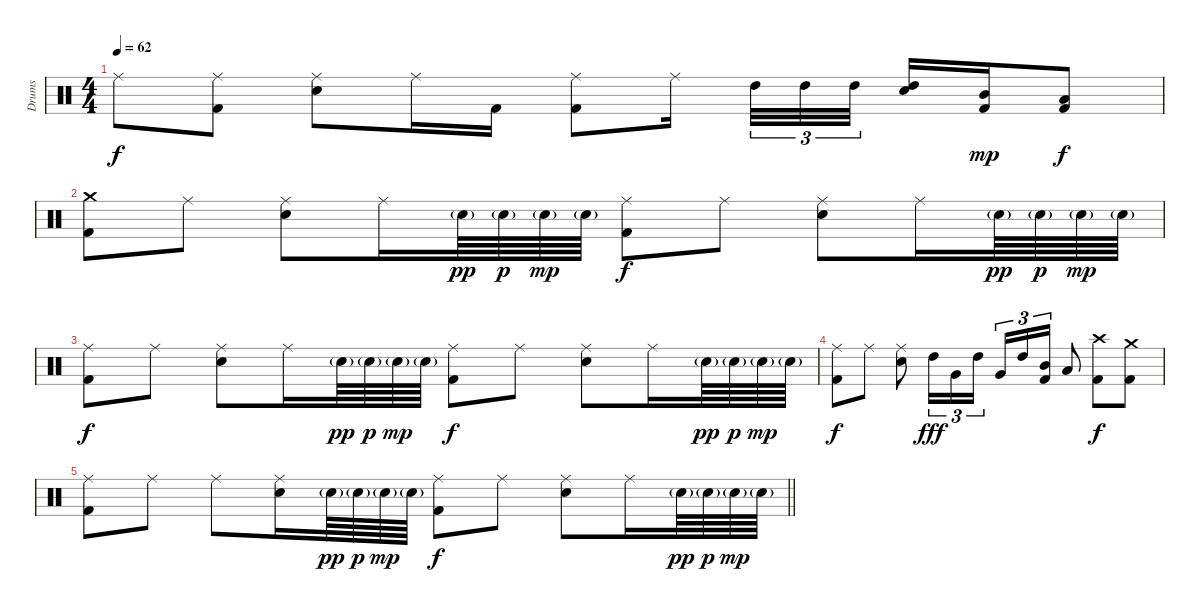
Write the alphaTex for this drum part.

\track ("Drums" "Drums") {instrument percussion}
\staff {score}
\articulation defaults
\ts (4 4)
\tempo 62
\clef neutral
\ks c "Ride (middle)".8{dy f}
("Ride (middle)" "Kick (hit) 2").8 ("Ride (middle)" "Electric Snare (hit)").8 "Ride (middle)".16 "Kick (hit) 2".16 ("Ride (middle)" "Kick (hit) 2").8 "Ride (middle)".16{beam splitsecondary} "High Tom (hit)".32{tu (3 2)} "High Tom (hit)".32{tu (3 2)} "High Tom (hit)".32{tu (3 2)} ("High Tom (hit)" "Electric Snare (hit)").16 ("Mid Tom (hit)" "Kick (hit) 2").16{dy mp} ("Low Tom (hit)" "Kick (hit) 2").8{dy f} |
("Crash medium (hit)" "Kick (hit) 2").8 "Ride (middle)".8 ("Ride (middle)" "Electric Snare (hit)").8 "Ride (middle)".16 "Electric Snare (hit)"{g}.64{dy pp} "Electric Snare (hit)"{g}.64{dy p} "Electric Snare (hit)"{g}.64{dy mp} "Electric Snare (hit)"{g}.64 ("Ride (middle)" "Kick (hit) 2").8{dy f} "Ride (middle)".8 ("Ride (middle)" "Electric Snare (hit)").8 "Ride (middle)".16 "Electric Snare (hit)"{g}.64{dy pp} "Electric Snare (hit)"{g}.64{dy p} "Electric Snare (hit)"{g}.64{dy mp} "Electric Snare (hit)"{g}.64 |
("Ride (middle)" "Kick (hit) 2").8{dy f} "Ride (middle)".8 ("Ride (middle)" "Electric Snare (hit)").8 "Ride (middle)".16 "Electric Snare (hit)"{g}.64{dy pp} "Electric Snare (hit)"{g}.64{dy p} "Electric Snare (hit)"{g}.64{dy mp} "Electric Snare (hit)"{g}.64 ("Ride (middle)" "Kick (hit) 2").8{dy f} "Ride (middle)".8 ("Ride (middle)" "Electric Snare (hit)").8 "Ride (middle)".16 "Electric Snare (hit)"{g}.64{dy pp} "Electric Snare (hit)"{g}.64{dy p} "Electric Snare (hit)"{g}.64{dy mp} "Electric Snare (hit)"{g}.64 |
("Ride (middle)" "Kick (hit) 2").8{dy f} "Ride (middle)".8 ("Ride (middle)" "Electric Snare (hit)").8 "High Tom (hit)".16{tu (3 2) dy fff} "Very Low Tom (hit)".16{tu (3 2)} "High Tom (hit)".16{tu (3 2)} "Very Low Tom (hit)".16{tu (3 2)} "High Tom (hit)".16{tu (3 2)} ("Mid Tom (hit)" "Kick (hit) 2").16{tu (3 2)} "Low Tom (hit)".8 ("Crash high (hit)" "Kick (hit) 2").8{dy f} ("Crash medium (hit)" "Kick (hit) 2").8 |
\barLineRight lightlight
("Ride (middle)" "Kick (hit) 2").8 "Ride (middle)".8 "Ride (middle)".8 ("Ride (middle)" "Electric Snare (hit)").16 "Electric Snare (hit)"{g}.64{dy pp} "Electric Snare (hit)"{g}.64{dy p} "Electric Snare (hit)"{g}.64{dy mp} "Electric Snare (hit)"{g}.64 ("Ride (middle)" "Kick (hit) 2").8{dy f} "Ride (middle)".8 ("Ride (middle)" "Electric Snare (hit)").8 "Ride (middle)".16 "Electric Snare (hit)"{g}.64{dy pp} "Electric Snare (hit)"{g}.64{dy p} "Electric Snare (hit)"{g}.64{dy mp} "Electric Snare (hit)"{g}.64
